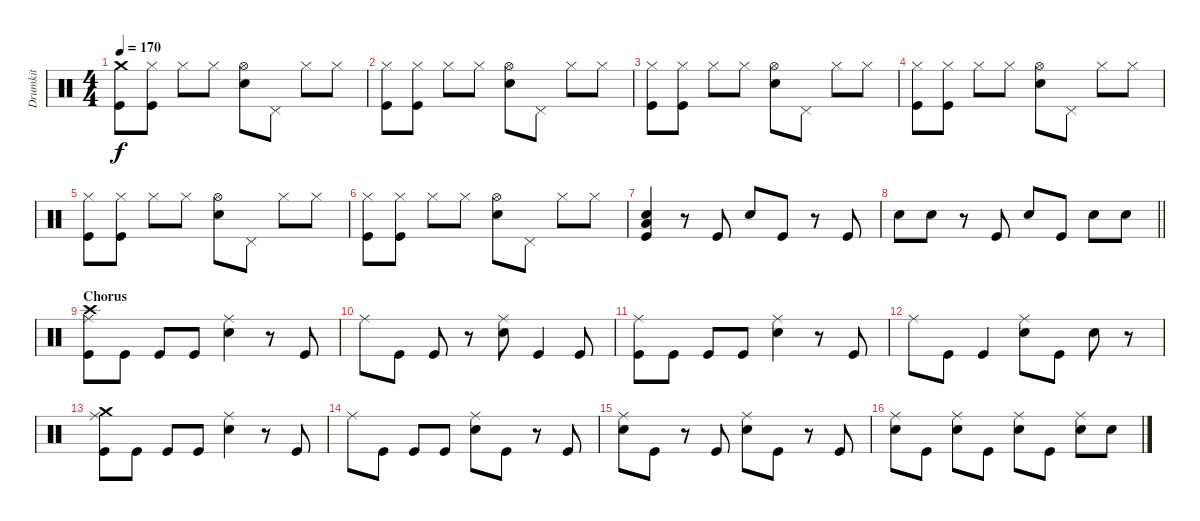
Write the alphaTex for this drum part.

\track ("Drumkit" "Drumkit") {instrument percussion}
\staff {score}
\articulation defaults
\ts (4 4)
\tempo 170
\clef neutral
\ks c
("Crash medium (hit)" "Kick (hit)").8{dy f} ("Hi-Hat (closed)" "Kick (hit)").8 "Hi-Hat (closed)".8 "Hi-Hat (closed)".8 ("Hi-Hat (open)" "Snare (hit) 2").8 "Pedal Hi-Hat (hit)".8 "Hi-Hat (closed)".8 "Hi-Hat (closed)".8 |
("Hi-Hat (closed)" "Kick (hit)").8 ("Hi-Hat (closed)" "Kick (hit)").8 "Hi-Hat (closed)".8 "Hi-Hat (closed)".8 ("Hi-Hat (open)" "Snare (hit) 2").8 "Pedal Hi-Hat (hit)".8 "Hi-Hat (closed)".8 "Hi-Hat (closed)".8 |
("Hi-Hat (closed)" "Kick (hit)").8 ("Hi-Hat (closed)" "Kick (hit)").8 "Hi-Hat (closed)".8 "Hi-Hat (closed)".8 ("Hi-Hat (open)" "Snare (hit) 2").8 "Pedal Hi-Hat (hit)".8 "Hi-Hat (closed)".8 "Hi-Hat (closed)".8 |
("Hi-Hat (closed)" "Kick (hit)").8 ("Hi-Hat (closed)" "Kick (hit)").8 "Hi-Hat (closed)".8 "Hi-Hat (closed)".8 ("Hi-Hat (open)" "Snare (hit) 2").8 "Pedal Hi-Hat (hit)".8 "Hi-Hat (closed)".8 "Hi-Hat (closed)".8 |
("Hi-Hat (closed)" "Kick (hit)").8 ("Hi-Hat (closed)" "Kick (hit)").8 "Hi-Hat (closed)".8 "Hi-Hat (closed)".8 ("Hi-Hat (open)" "Snare (hit) 2").8 "Pedal Hi-Hat (hit)".8 "Hi-Hat (closed)".8 "Hi-Hat (closed)".8 |
("Hi-Hat (closed)" "Kick (hit)").8 ("Hi-Hat (closed)" "Kick (hit)").8 "Hi-Hat (closed)".8 "Hi-Hat (closed)".8 ("Hi-Hat (open)" "Snare (hit) 2").8 "Pedal Hi-Hat (hit)".8 "Hi-Hat (closed)".8 "Hi-Hat (closed)".8 |
("Low Floor Tom (hit)" "Snare (hit) 2" "Kick (hit)").4 r.8 "Kick (hit)".8 "Snare (hit) 2".8 "Kick (hit)".8 r.8 "Kick (hit)".8 |
\barLineRight lightlight "Snare (hit) 2".8 "Snare (hit) 2".8
r.8 "Kick (hit)".8 "Snare (hit) 2".8 "Kick (hit)".8 "Snare (hit) 2".8 "Snare (hit) 2".8 |
\section ("" "Chorus")
("Ride (middle)" "Crash high (hit)" "Kick (hit)").8 "Kick (hit)".8 "Kick (hit)".8 "Kick (hit)".8 ("Ride (middle)" "Snare (hit) 2").4 r.8 "Kick (hit)".8 |
"Ride (middle)".8 "Kick (hit)".8 "Kick (hit)".8 r.8 ("Ride (middle)" "Snare (hit) 2").8 "Kick (hit)".4 "Kick (hit)".8 |
("Ride (middle)" "Kick (hit)").8 "Kick (hit)".8 "Kick (hit)".8 "Kick (hit)".8 ("Ride (middle)" "Snare (hit) 2").4 r.8 "Kick (hit)".8 |
"Ride (middle)".8 "Kick (hit)".8 "Kick (hit)".4 ("Ride (middle)" "Snare (hit) 2").8 "Kick (hit)".8 "Snare (hit) 2".8 r.8 |
("Ride (middle)" "Crash medium (hit)" "Kick (hit)").8 "Kick (hit)".8 "Kick (hit)".8 "Kick (hit)".8 ("Ride (middle)" "Snare (hit) 2").4 r.8 "Kick (hit)".8 |
"Ride (middle)".8 "Kick (hit)".8 "Kick (hit)".8 "Kick (hit)".8 ("Ride (middle)" "Snare (hit) 2").8 "Kick (hit)".8 r.8 "Kick (hit)".8 |
("Ride (middle)" "Snare (hit) 2").8 "Kick (hit)".8 r.8 "Kick (hit)".8 ("Ride (middle)" "Snare (hit) 2").8 "Kick (hit)".8 r.8 "Kick (hit)".8 |
("Ride (middle)" "Snare (hit) 2").8 "Kick (hit)".8 ("Ride (middle)" "Snare (hit) 2").8 "Kick (hit)".8 ("Ride (middle)" "Snare (hit) 2").8 "Kick (hit)".8 ("Ride (middle)" "Snare (hit) 2").8 "Snare (hit) 2".8
